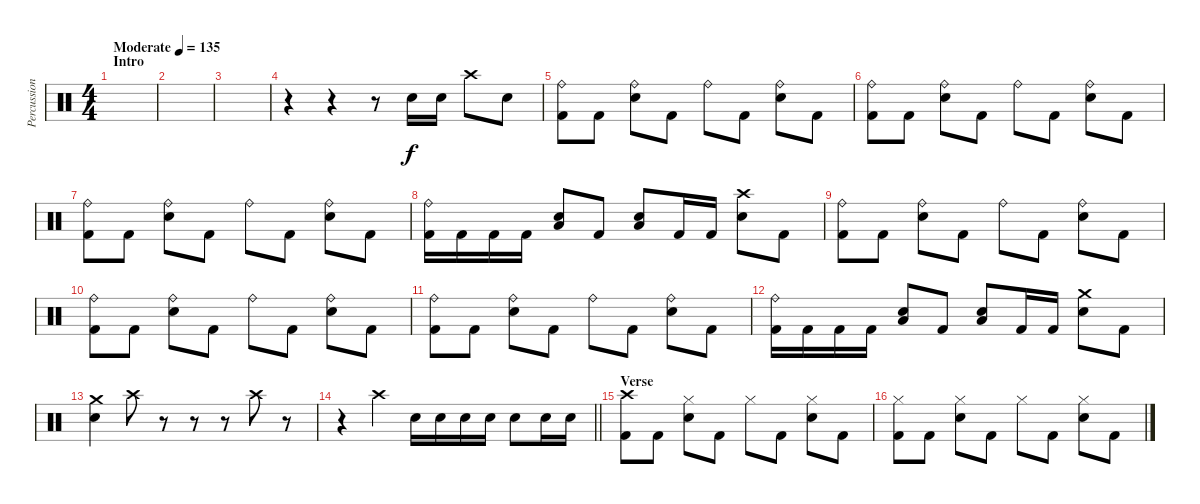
\track ("Percussion" "Percussion") {instrument percussion}
\staff {score}
\articulation defaults
\ts (4 4)
\section ("" "Intro")
\tempo (135 "Moderate")
\clef neutral
\ks c
|
|
|
r.4 r.4 r.8 "Electric Snare (hit)".16 "Electric Snare (hit)".16 "Crash high (hit)".8 "Electric Snare (hit)".8 |
("Ride (bell)" "Kick (hit) 2").8 "Kick (hit) 2".8 ("Ride (bell)" "Electric Snare (hit)").8 "Kick (hit) 2".8 "Ride (bell)".8 "Kick (hit) 2".8 ("Ride (bell)" "Electric Snare (hit)").8 "Kick (hit) 2".8 |
("Ride (bell)" "Kick (hit) 2").8 "Kick (hit) 2".8 ("Ride (bell)" "Electric Snare (hit)").8 "Kick (hit) 2".8 "Ride (bell)".8 "Kick (hit) 2".8 ("Ride (bell)" "Electric Snare (hit)").8 "Kick (hit) 2".8 |
("Ride (bell)" "Kick (hit) 2").8 "Kick (hit) 2".8 ("Ride (bell)" "Electric Snare (hit)").8 "Kick (hit) 2".8 "Ride (bell)".8 "Kick (hit) 2".8 ("Ride (bell)" "Electric Snare (hit)").8 "Kick (hit) 2".8 |
("Ride (bell)" "Kick (hit) 2").16 "Kick (hit) 2".16 "Kick (hit) 2".16 "Kick (hit) 2".16 ("Electric Snare (hit)" "Low Floor Tom (hit)").8 "Kick (hit) 2".8 ("Electric Snare (hit)" "Low Floor Tom (hit)").8 "Kick (hit) 2".16 "Kick (hit) 2".16 ("Crash high (hit)" "Electric Snare (hit)").8 "Kick (hit) 2".8 |
("Ride (bell)" "Kick (hit) 2").8 "Kick (hit) 2".8 ("Ride (bell)" "Electric Snare (hit)").8 "Kick (hit) 2".8 "Ride (bell)".8 "Kick (hit) 2".8 ("Ride (bell)" "Electric Snare (hit)").8 "Kick (hit) 2".8 |
("Ride (bell)" "Kick (hit) 2").8 "Kick (hit) 2".8 ("Ride (bell)" "Electric Snare (hit)").8 "Kick (hit) 2".8 "Ride (bell)".8 "Kick (hit) 2".8 ("Ride (bell)" "Electric Snare (hit)").8 "Kick (hit) 2".8 |
("Ride (bell)" "Kick (hit) 2").8 "Kick (hit) 2".8 ("Ride (bell)" "Electric Snare (hit)").8 "Kick (hit) 2".8 "Ride (bell)".8 "Kick (hit) 2".8 ("Ride (bell)" "Electric Snare (hit)").8 "Kick (hit) 2".8 |
("Ride (bell)" "Kick (hit) 2").16 "Kick (hit) 2".16 "Kick (hit) 2".16 "Kick (hit) 2".16 ("Electric Snare (hit)" "Low Floor Tom (hit)").8 "Kick (hit) 2".8 ("Electric Snare (hit)" "Low Floor Tom (hit)").8 "Kick (hit) 2".16 "Kick (hit) 2".16 ("Crash medium (hit)" "Electric Snare (hit)").8 "Kick (hit) 2".8 |
("Crash medium (hit)" "Electric Snare (hit)").4 "Crash high (hit)".8 r.8 r.8 r.8 "Crash high (hit)".8 r.8 |
\barLineRight lightlight
r.4 "Crash high (hit)".4 "Electric Snare (hit)".16 "Electric Snare (hit)".16 "Electric Snare (hit)".16 "Electric Snare (hit)".16 "Electric Snare (hit)".8 "Electric Snare (hit)".16 "Electric Snare (hit)".16 |
\section ("" "Verse")
("Crash high (hit)" "Kick (hit) 2").8 "Kick (hit) 2".8 ("Hi-Hat (closed)" "Electric Snare (hit)").8 "Kick (hit) 2".8 "Hi-Hat (closed)".8 "Kick (hit) 2".8 ("Hi-Hat (closed)" "Electric Snare (hit)").8 "Kick (hit) 2".8 |
("Hi-Hat (closed)" "Kick (hit) 2").8 "Kick (hit) 2".8 ("Hi-Hat (closed)" "Electric Snare (hit)").8 "Kick (hit) 2".8 "Hi-Hat (closed)".8 "Kick (hit) 2".8 ("Hi-Hat (closed)" "Electric Snare (hit)").8 "Kick (hit) 2".8
